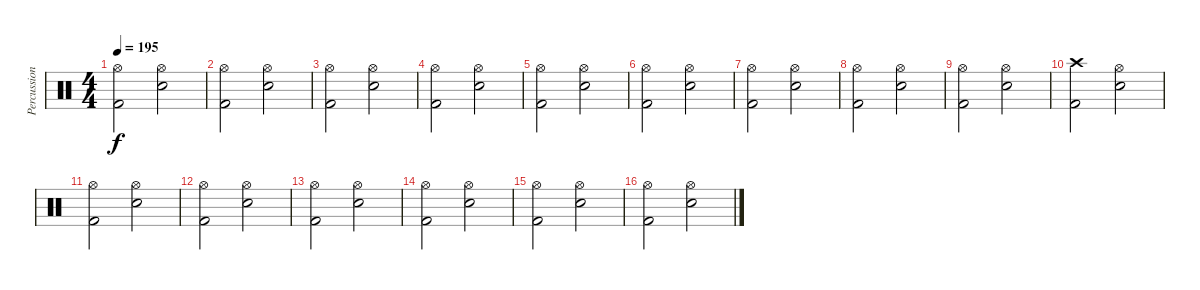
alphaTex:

\track ("Percussion" "Percussion") {instrument percussion}
\staff {score}
\articulation defaults
\ts (4 4)
\tempo 195
\clef neutral
\ks c
("Hi-Hat (open)" "Kick (hit) 2").2{dy f} ("Hi-Hat (open)" "Snare (hit) 2").2 |
("Hi-Hat (open)" "Kick (hit) 2").2 ("Hi-Hat (open)" "Snare (hit) 2").2 |
("Hi-Hat (open)" "Kick (hit) 2").2 ("Hi-Hat (open)" "Snare (hit) 2").2 |
("Hi-Hat (open)" "Kick (hit) 2").2 ("Hi-Hat (open)" "Snare (hit) 2").2 |
("Hi-Hat (open)" "Kick (hit) 2").2 ("Hi-Hat (open)" "Snare (hit) 2").2 |
("Hi-Hat (open)" "Kick (hit) 2").2 ("Hi-Hat (open)" "Snare (hit) 2").2 |
("Hi-Hat (open)" "Kick (hit) 2").2 ("Hi-Hat (open)" "Snare (hit) 2").2 |
("Hi-Hat (open)" "Kick (hit) 2").2 ("Hi-Hat (open)" "Snare (hit) 2").2 |
("Hi-Hat (open)" "Kick (hit) 2").2 ("Hi-Hat (open)" "Snare (hit) 2").2 |
("Crash high (hit)" "Kick (hit) 2").2 ("Hi-Hat (open)" "Snare (hit) 2").2 |
("Hi-Hat (open)" "Kick (hit) 2").2 ("Hi-Hat (open)" "Snare (hit) 2").2 |
("Hi-Hat (open)" "Kick (hit) 2").2 ("Hi-Hat (open)" "Snare (hit) 2").2 |
("Hi-Hat (open)" "Kick (hit) 2").2 ("Hi-Hat (open)" "Snare (hit) 2").2 |
("Hi-Hat (open)" "Kick (hit) 2").2 ("Hi-Hat (open)" "Snare (hit) 2").2 |
("Hi-Hat (open)" "Kick (hit) 2").2 ("Hi-Hat (open)" "Snare (hit) 2").2 |
("Hi-Hat (open)" "Kick (hit) 2").2 ("Hi-Hat (open)" "Snare (hit) 2").2
